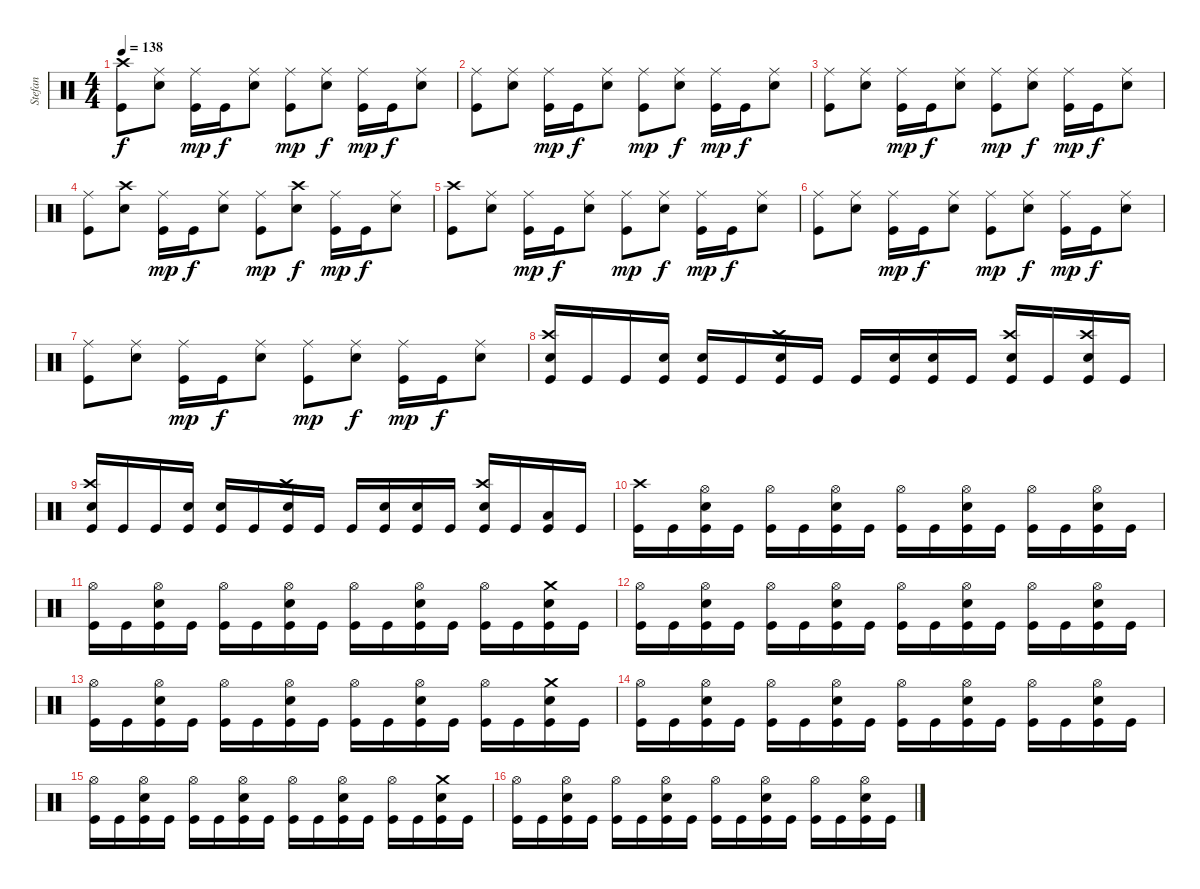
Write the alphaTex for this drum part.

\track ("Stefan" "Stefan") {instrument percussion}
\staff {score}
\articulation defaults
\ts (4 4)
\tempo 138
\clef neutral
\ks c
("Kick (hit)" "Crash high (hit)").8{dy f} ("Ride (middle)" "Snare (hit) 2").8 ("Ride (middle)" "Kick (hit)").16{dy mp} "Kick (hit)".16{dy f} ("Ride (middle)" "Snare (hit) 2").8 ("Ride (middle)" "Kick (hit)").8{dy mp} ("Ride (middle)" "Snare (hit) 2").8{dy f} ("Ride (middle)" "Kick (hit)").16{dy mp} "Kick (hit)".16{dy f} ("Ride (middle)" "Snare (hit) 2").8 |
("Ride (middle)" "Kick (hit)").8 ("Ride (middle)" "Snare (hit) 2").8 ("Ride (middle)" "Kick (hit)").16{dy mp} "Kick (hit)".16{dy f} ("Ride (middle)" "Snare (hit) 2").8 ("Ride (middle)" "Kick (hit)").8{dy mp} ("Ride (middle)" "Snare (hit) 2").8{dy f} ("Ride (middle)" "Kick (hit)").16{dy mp} "Kick (hit)".16{dy f} ("Ride (middle)" "Snare (hit) 2").8 |
("Ride (middle)" "Kick (hit)").8 ("Ride (middle)" "Snare (hit) 2").8 ("Ride (middle)" "Kick (hit)").16{dy mp} "Kick (hit)".16{dy f} ("Ride (middle)" "Snare (hit) 2").8 ("Ride (middle)" "Kick (hit)").8{dy mp} ("Ride (middle)" "Snare (hit) 2").8{dy f} ("Ride (middle)" "Kick (hit)").16{dy mp} "Kick (hit)".16{dy f} ("Ride (middle)" "Snare (hit) 2").8 |
("Ride (middle)" "Kick (hit)").8 ("Snare (hit) 2" "Crash high (hit)").8 ("Ride (middle)" "Kick (hit)").16{dy mp} "Kick (hit)".16{dy f} ("Ride (middle)" "Snare (hit) 2").8 ("Ride (middle)" "Kick (hit)").8{dy mp} ("Snare (hit) 2" "Crash high (hit)").8{dy f} ("Ride (middle)" "Kick (hit)").16{dy mp} "Kick (hit)".16{dy f} ("Ride (middle)" "Snare (hit) 2").8 |
("Kick (hit)" "Crash high (hit)").8 ("Ride (middle)" "Snare (hit) 2").8 ("Ride (middle)" "Kick (hit)").16{dy mp} "Kick (hit)".16{dy f} ("Ride (middle)" "Snare (hit) 2").8 ("Ride (middle)" "Kick (hit)").8{dy mp} ("Ride (middle)" "Snare (hit) 2").8{dy f} ("Ride (middle)" "Kick (hit)").16{dy mp} "Kick (hit)".16{dy f} ("Ride (middle)" "Snare (hit) 2").8 |
("Ride (middle)" "Kick (hit)").8 ("Ride (middle)" "Snare (hit) 2").8 ("Ride (middle)" "Kick (hit)").16{dy mp} "Kick (hit)".16{dy f} ("Ride (middle)" "Snare (hit) 2").8 ("Ride (middle)" "Kick (hit)").8{dy mp} ("Ride (middle)" "Snare (hit) 2").8{dy f} ("Ride (middle)" "Kick (hit)").16{dy mp} "Kick (hit)".16{dy f} ("Ride (middle)" "Snare (hit) 2").8 |
("Ride (middle)" "Kick (hit)").8 ("Ride (middle)" "Snare (hit) 2").8 ("Ride (middle)" "Kick (hit)").16{dy mp} "Kick (hit)".16{dy f} ("Ride (middle)" "Snare (hit) 2").8 ("Ride (middle)" "Kick (hit)").8{dy mp} ("Ride (middle)" "Snare (hit) 2").8{dy f} ("Ride (middle)" "Kick (hit)").16{dy mp} "Kick (hit)".16{dy f} ("Ride (middle)" "Snare (hit) 2").8 |
("Kick (hit)" "Snare (hit) 2" "Crash high (hit)").16 "Kick (hit)".16 "Kick (hit)".16 ("Kick (hit)" "Snare (hit) 2").16 ("Kick (hit)" "Snare (hit) 2").16 "Kick (hit)".16 ("Kick (hit)" "Snare (hit) 2" "Crash high (hit)").16 "Kick (hit)".16 "Kick (hit)".16 ("Kick (hit)" "Snare (hit) 2").16 ("Kick (hit)" "Snare (hit) 2").16 "Kick (hit)".16 ("Kick (hit)" "Snare (hit) 2" "Crash high (hit)").16 "Kick (hit)".16 ("Kick (hit)" "Snare (hit) 2" "Crash high (hit)").16 "Kick (hit)".16 |
("Kick (hit)" "Snare (hit) 2" "Crash high (hit)").16 "Kick (hit)".16 "Kick (hit)".16 ("Kick (hit)" "Snare (hit) 2").16 ("Kick (hit)" "Snare (hit) 2").16 "Kick (hit)".16 ("Kick (hit)" "Snare (hit) 2" "Crash high (hit)").16 "Kick (hit)".16 "Kick (hit)".16 ("Kick (hit)" "Snare (hit) 2").16 ("Kick (hit)" "Snare (hit) 2").16 "Kick (hit)".16 ("Kick (hit)" "Snare (hit) 2" "Crash high (hit)").16 "Kick (hit)".16 ("Kick (hit)" "Low Tom (hit)").16 "Kick (hit)".16 |
("Crash high (hit)" "Kick (hit)").16 "Kick (hit)".16 ("Hi-Hat (open)" "Snare (hit) 2" "Kick (hit)").16 "Kick (hit)".16 ("Hi-Hat (open)" "Kick (hit)").16 "Kick (hit)".16 ("Hi-Hat (open)" "Snare (hit) 2" "Kick (hit)").16 "Kick (hit)".16 ("Hi-Hat (open)" "Kick (hit)").16 "Kick (hit)".16 ("Hi-Hat (open)" "Snare (hit) 2" "Kick (hit)").16 "Kick (hit)".16 ("Hi-Hat (open)" "Kick (hit)").16 "Kick (hit)".16 ("Hi-Hat (open)" "Snare (hit) 2" "Kick (hit)").16 "Kick (hit)".16 |
("Hi-Hat (open)" "Kick (hit)").16 "Kick (hit)".16 ("Hi-Hat (open)" "Snare (hit) 2" "Kick (hit)").16 "Kick (hit)".16 ("Hi-Hat (open)" "Kick (hit)").16 "Kick (hit)".16 ("Hi-Hat (open)" "Snare (hit) 2" "Kick (hit)").16 "Kick (hit)".16 ("Hi-Hat (open)" "Kick (hit)").16 "Kick (hit)".16 ("Hi-Hat (open)" "Snare (hit) 2" "Kick (hit)").16 "Kick (hit)".16 ("Hi-Hat (open)" "Kick (hit)").16 "Kick (hit)".16 ("Crash medium (hit)" "Snare (hit) 2" "Kick (hit)").16 "Kick (hit)".16 |
("Hi-Hat (open)" "Kick (hit)").16 "Kick (hit)".16 ("Hi-Hat (open)" "Snare (hit) 2" "Kick (hit)").16 "Kick (hit)".16 ("Hi-Hat (open)" "Kick (hit)").16 "Kick (hit)".16 ("Hi-Hat (open)" "Snare (hit) 2" "Kick (hit)").16 "Kick (hit)".16 ("Hi-Hat (open)" "Kick (hit)").16 "Kick (hit)".16 ("Hi-Hat (open)" "Snare (hit) 2" "Kick (hit)").16 "Kick (hit)".16 ("Hi-Hat (open)" "Kick (hit)").16 "Kick (hit)".16 ("Hi-Hat (open)" "Snare (hit) 2" "Kick (hit)").16 "Kick (hit)".16 |
("Hi-Hat (open)" "Kick (hit)").16 "Kick (hit)".16 ("Hi-Hat (open)" "Snare (hit) 2" "Kick (hit)").16 "Kick (hit)".16 ("Hi-Hat (open)" "Kick (hit)").16 "Kick (hit)".16 ("Hi-Hat (open)" "Snare (hit) 2" "Kick (hit)").16 "Kick (hit)".16 ("Hi-Hat (open)" "Kick (hit)").16 "Kick (hit)".16 ("Hi-Hat (open)" "Snare (hit) 2" "Kick (hit)").16 "Kick (hit)".16 ("Hi-Hat (open)" "Kick (hit)").16 "Kick (hit)".16 ("Crash medium (hit)" "Snare (hit) 2" "Kick (hit)").16 "Kick (hit)".16 |
("Hi-Hat (open)" "Kick (hit)").16 "Kick (hit)".16 ("Hi-Hat (open)" "Snare (hit) 2" "Kick (hit)").16 "Kick (hit)".16 ("Hi-Hat (open)" "Kick (hit)").16 "Kick (hit)".16 ("Hi-Hat (open)" "Snare (hit) 2" "Kick (hit)").16 "Kick (hit)".16 ("Hi-Hat (open)" "Kick (hit)").16 "Kick (hit)".16 ("Hi-Hat (open)" "Snare (hit) 2" "Kick (hit)").16 "Kick (hit)".16 ("Hi-Hat (open)" "Kick (hit)").16 "Kick (hit)".16 ("Hi-Hat (open)" "Snare (hit) 2" "Kick (hit)").16 "Kick (hit)".16 |
("Hi-Hat (open)" "Kick (hit)").16 "Kick (hit)".16 ("Hi-Hat (open)" "Snare (hit) 2" "Kick (hit)").16 "Kick (hit)".16 ("Hi-Hat (open)" "Kick (hit)").16 "Kick (hit)".16 ("Hi-Hat (open)" "Snare (hit) 2" "Kick (hit)").16 "Kick (hit)".16 ("Hi-Hat (open)" "Kick (hit)").16 "Kick (hit)".16 ("Hi-Hat (open)" "Snare (hit) 2" "Kick (hit)").16 "Kick (hit)".16 ("Hi-Hat (open)" "Kick (hit)").16 "Kick (hit)".16 ("Crash medium (hit)" "Snare (hit) 2" "Kick (hit)").16 "Kick (hit)".16 |
("Hi-Hat (open)" "Kick (hit)").16 "Kick (hit)".16 ("Hi-Hat (open)" "Snare (hit) 2" "Kick (hit)").16 "Kick (hit)".16 ("Hi-Hat (open)" "Kick (hit)").16 "Kick (hit)".16 ("Hi-Hat (open)" "Snare (hit) 2" "Kick (hit)").16 "Kick (hit)".16 ("Hi-Hat (open)" "Kick (hit)").16 "Kick (hit)".16 ("Hi-Hat (open)" "Snare (hit) 2" "Kick (hit)").16 "Kick (hit)".16 ("Hi-Hat (open)" "Kick (hit)").16 "Kick (hit)".16 ("Hi-Hat (open)" "Snare (hit) 2" "Kick (hit)").16 "Kick (hit)".16
